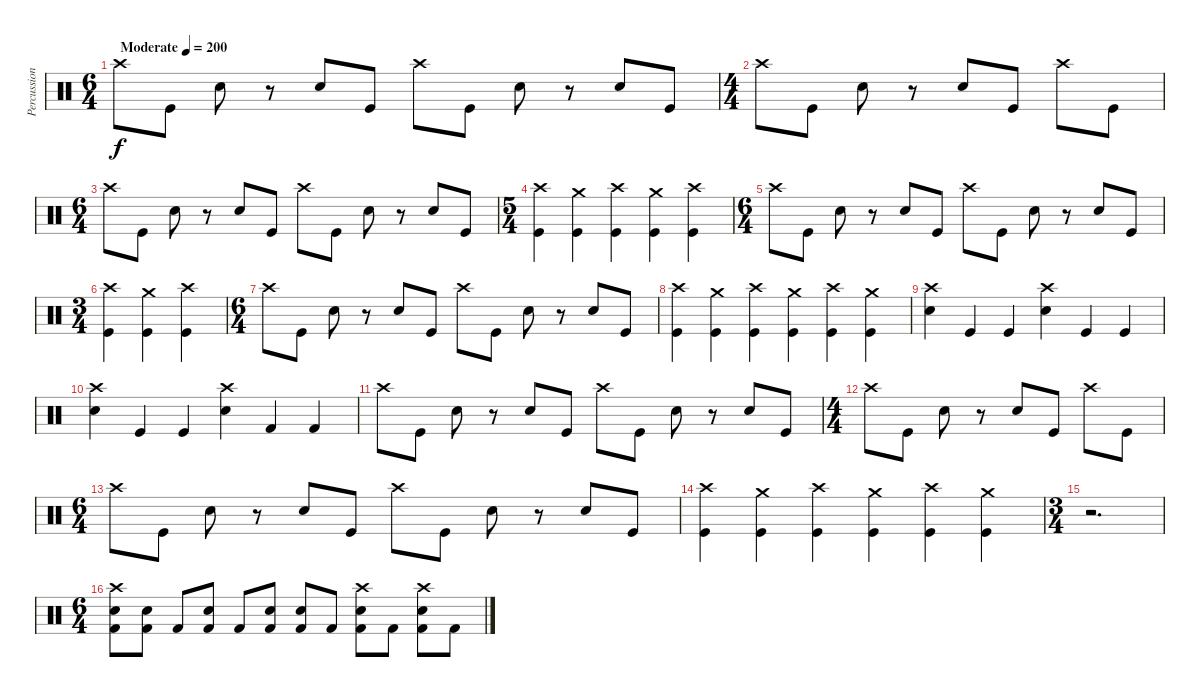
\track ("Percussion" "Percussion") {instrument percussion}
\staff {score}
\articulation defaults
\ts (6 4)
\tempo (200 "Moderate")
\clef neutral
\ks c "Crash high (hit)".8{dy f} "Kick (hit)".8 "Snare (hit) 2".8
r.8 "Snare (hit) 2".8 "Kick (hit)".8 "Crash high (hit)".8 "Kick (hit)".8 "Snare (hit) 2".8 r.8 "Snare (hit) 2".8 "Kick (hit)".8 |
\ts (4 4)
"Crash high (hit)".8 "Kick (hit)".8 "Snare (hit) 2".8 r.8 "Snare (hit) 2".8 "Kick (hit)".8 "Crash high (hit)".8 "Kick (hit)".8 |
\ts (6 4)
"Crash high (hit)".8 "Kick (hit)".8 "Snare (hit) 2".8 r.8 "Snare (hit) 2".8 "Kick (hit)".8 "Crash high (hit)".8 "Kick (hit)".8 "Snare (hit) 2".8 r.8 "Snare (hit) 2".8 "Kick (hit)".8 |
\ts (5 4)
("Crash high (hit)" "Kick (hit)").4 ("Crash medium (hit)" "Kick (hit)").4 ("Crash high (hit)" "Kick (hit)").4 ("Crash medium (hit)" "Kick (hit)").4 ("Crash high (hit)" "Kick (hit)").4 |
\ts (6 4)
"Crash high (hit)".8 "Kick (hit)".8 "Snare (hit) 2".8 r.8 "Snare (hit) 2".8 "Kick (hit)".8 "Crash high (hit)".8 "Kick (hit)".8 "Snare (hit) 2".8 r.8 "Snare (hit) 2".8 "Kick (hit)".8 |
\ts (3 4)
("Crash high (hit)" "Kick (hit)").4 ("Crash medium (hit)" "Kick (hit)").4 ("Crash high (hit)" "Kick (hit)").4 |
\ts (6 4)
"Crash high (hit)".8 "Kick (hit)".8 "Snare (hit) 2".8 r.8 "Snare (hit) 2".8 "Kick (hit)".8 "Crash high (hit)".8 "Kick (hit)".8 "Snare (hit) 2".8 r.8 "Snare (hit) 2".8 "Kick (hit)".8 |
("Crash high (hit)" "Kick (hit)").4 ("Crash medium (hit)" "Kick (hit)").4 ("Crash high (hit)" "Kick (hit)").4 ("Crash medium (hit)" "Kick (hit)").4 ("Crash high (hit)" "Kick (hit)").4 ("Crash medium (hit)" "Kick (hit)").4 |
("Crash high (hit)" "Snare (hit) 2").4 "Kick (hit)".4 "Kick (hit)".4 ("Crash high (hit)" "Snare (hit) 2").4 "Kick (hit)".4 "Kick (hit)".4 |
("Crash high (hit)" "Snare (hit) 2").4 "Kick (hit)".4 "Kick (hit)".4 ("Crash high (hit)" "Snare (hit) 2").4 "Kick (hit) 2".4 "Kick (hit) 2".4 |
"Crash high (hit)".8 "Kick (hit)".8 "Snare (hit) 2".8 r.8 "Snare (hit) 2".8 "Kick (hit)".8 "Crash high (hit)".8 "Kick (hit)".8 "Snare (hit) 2".8 r.8 "Snare (hit) 2".8 "Kick (hit)".8 |
\ts (4 4)
"Crash high (hit)".8 "Kick (hit)".8 "Snare (hit) 2".8 r.8 "Snare (hit) 2".8 "Kick (hit)".8 "Crash high (hit)".8 "Kick (hit)".8 |
\ts (6 4)
"Crash high (hit)".8 "Kick (hit)".8 "Snare (hit) 2".8 r.8 "Snare (hit) 2".8 "Kick (hit)".8 "Crash high (hit)".8 "Kick (hit)".8 "Snare (hit) 2".8 r.8 "Snare (hit) 2".8 "Kick (hit)".8 |
("Crash high (hit)" "Kick (hit)").4 ("Crash medium (hit)" "Kick (hit)").4 ("Crash high (hit)" "Kick (hit)").4 ("Crash medium (hit)" "Kick (hit)").4 ("Crash high (hit)" "Kick (hit)").4 ("Crash medium (hit)" "Kick (hit)").4 |
\ts (3 4)
r.2{d} |
\ts (6 4)
("Crash high (hit)" "Snare (hit) 2" "Kick (hit) 2").8 ("Snare (hit) 2" "Kick (hit) 2").8 "Kick (hit) 2".8 ("Snare (hit) 2" "Kick (hit) 2").8 "Kick (hit) 2".8 ("Snare (hit) 2" "Kick (hit) 2").8 ("Snare (hit) 2" "Kick (hit) 2").8 "Kick (hit) 2".8 ("Crash high (hit)" "Snare (hit) 2" "Kick (hit) 2").8 "Kick (hit) 2".8 ("Crash high (hit)" "Snare (hit) 2" "Kick (hit) 2").8 "Kick (hit) 2".8
